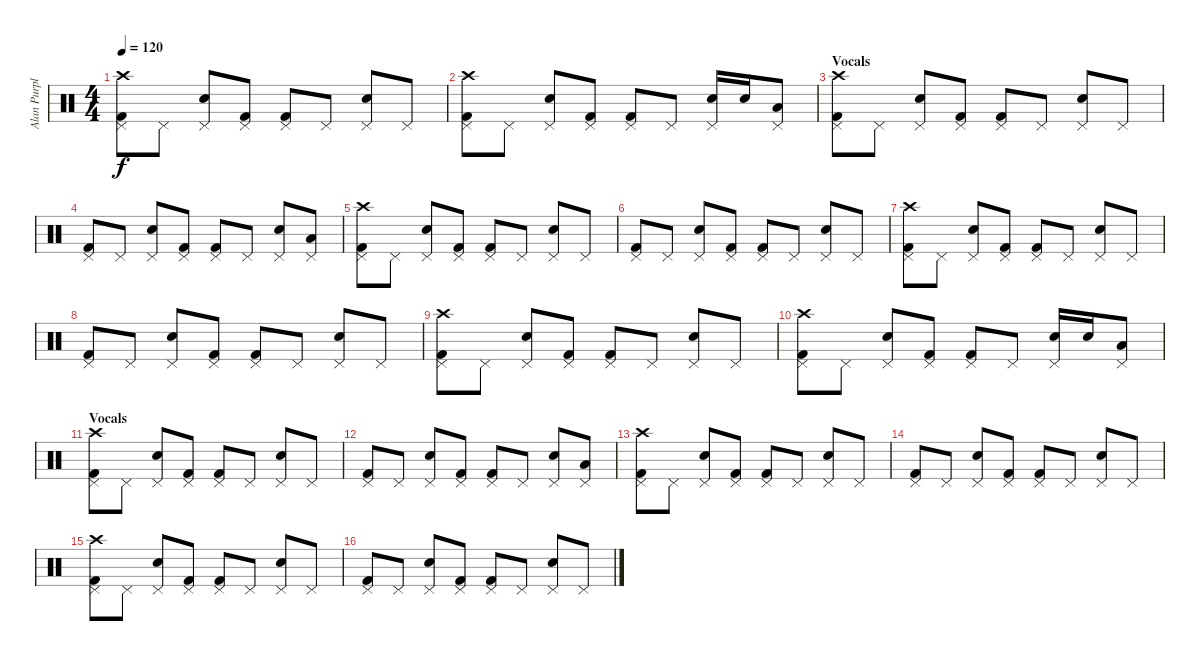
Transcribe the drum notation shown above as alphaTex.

\track ("Alan Purple" "Alan Purpl") {instrument percussion}
\staff {score}
\articulation defaults
\ts (4 4)
\tempo 120
\clef neutral
\ks c
("Crash high (hit)" "Pedal Hi-Hat (hit)" "Kick (hit) 2").8{dy f} "Pedal Hi-Hat (hit)".8 ("Pedal Hi-Hat (hit)" "Snare (hit) 2").8 ("Pedal Hi-Hat (hit)" "Kick (hit) 2").8 ("Pedal Hi-Hat (hit)" "Kick (hit) 2").8 "Pedal Hi-Hat (hit)".8 ("Pedal Hi-Hat (hit)" "Snare (hit) 2").8 "Pedal Hi-Hat (hit)".8 |
("Crash high (hit)" "Pedal Hi-Hat (hit)" "Kick (hit) 2").8 "Pedal Hi-Hat (hit)".8 ("Pedal Hi-Hat (hit)" "Snare (hit) 2").8 ("Pedal Hi-Hat (hit)" "Kick (hit) 2").8 ("Pedal Hi-Hat (hit)" "Kick (hit) 2").8 "Pedal Hi-Hat (hit)".8 ("Pedal Hi-Hat (hit)" "Snare (hit) 2").16 "Snare (hit) 2".16 ("Pedal Hi-Hat (hit)" "Low Tom (hit)").8 |
\section ("" "Vocals")
("Crash high (hit)" "Pedal Hi-Hat (hit)" "Kick (hit) 2").8 "Pedal Hi-Hat (hit)".8 ("Pedal Hi-Hat (hit)" "Snare (hit) 2").8 ("Pedal Hi-Hat (hit)" "Kick (hit) 2").8 ("Pedal Hi-Hat (hit)" "Kick (hit) 2").8 "Pedal Hi-Hat (hit)".8 ("Pedal Hi-Hat (hit)" "Snare (hit) 2").8 "Pedal Hi-Hat (hit)".8 |
("Pedal Hi-Hat (hit)" "Kick (hit) 2").8 "Pedal Hi-Hat (hit)".8 ("Pedal Hi-Hat (hit)" "Snare (hit) 2").8 ("Pedal Hi-Hat (hit)" "Kick (hit) 2").8 ("Pedal Hi-Hat (hit)" "Kick (hit) 2").8 "Pedal Hi-Hat (hit)".8 ("Pedal Hi-Hat (hit)" "Snare (hit) 2").8 ("Pedal Hi-Hat (hit)" "Low Tom (hit)").8 |
("Crash high (hit)" "Pedal Hi-Hat (hit)" "Kick (hit) 2").8 "Pedal Hi-Hat (hit)".8 ("Pedal Hi-Hat (hit)" "Snare (hit) 2").8 ("Pedal Hi-Hat (hit)" "Kick (hit) 2").8 ("Pedal Hi-Hat (hit)" "Kick (hit) 2").8 "Pedal Hi-Hat (hit)".8 ("Pedal Hi-Hat (hit)" "Snare (hit) 2").8 "Pedal Hi-Hat (hit)".8 |
("Pedal Hi-Hat (hit)" "Kick (hit) 2").8 "Pedal Hi-Hat (hit)".8 ("Pedal Hi-Hat (hit)" "Snare (hit) 2").8 ("Pedal Hi-Hat (hit)" "Kick (hit) 2").8 ("Pedal Hi-Hat (hit)" "Kick (hit) 2").8 "Pedal Hi-Hat (hit)".8 ("Pedal Hi-Hat (hit)" "Snare (hit) 2").8 "Pedal Hi-Hat (hit)".8 |
("Crash high (hit)" "Pedal Hi-Hat (hit)" "Kick (hit) 2").8 "Pedal Hi-Hat (hit)".8 ("Pedal Hi-Hat (hit)" "Snare (hit) 2").8 ("Pedal Hi-Hat (hit)" "Kick (hit) 2").8 ("Pedal Hi-Hat (hit)" "Kick (hit) 2").8 "Pedal Hi-Hat (hit)".8 ("Pedal Hi-Hat (hit)" "Snare (hit) 2").8 "Pedal Hi-Hat (hit)".8 |
("Pedal Hi-Hat (hit)" "Kick (hit) 2").8 "Pedal Hi-Hat (hit)".8 ("Pedal Hi-Hat (hit)" "Snare (hit) 2").8 ("Pedal Hi-Hat (hit)" "Kick (hit) 2").8 ("Pedal Hi-Hat (hit)" "Kick (hit) 2").8 "Pedal Hi-Hat (hit)".8 ("Pedal Hi-Hat (hit)" "Snare (hit) 2").8 "Pedal Hi-Hat (hit)".8 |
("Crash high (hit)" "Pedal Hi-Hat (hit)" "Kick (hit) 2").8 "Pedal Hi-Hat (hit)".8 ("Pedal Hi-Hat (hit)" "Snare (hit) 2").8 ("Pedal Hi-Hat (hit)" "Kick (hit) 2").8 ("Pedal Hi-Hat (hit)" "Kick (hit) 2").8 "Pedal Hi-Hat (hit)".8 ("Pedal Hi-Hat (hit)" "Snare (hit) 2").8 "Pedal Hi-Hat (hit)".8 |
("Crash high (hit)" "Pedal Hi-Hat (hit)" "Kick (hit) 2").8 "Pedal Hi-Hat (hit)".8 ("Pedal Hi-Hat (hit)" "Snare (hit) 2").8 ("Pedal Hi-Hat (hit)" "Kick (hit) 2").8 ("Pedal Hi-Hat (hit)" "Kick (hit) 2").8 "Pedal Hi-Hat (hit)".8 ("Pedal Hi-Hat (hit)" "Snare (hit) 2").16 "Snare (hit) 2".16 ("Pedal Hi-Hat (hit)" "Low Tom (hit)").8 |
\section ("" "Vocals")
("Crash high (hit)" "Pedal Hi-Hat (hit)" "Kick (hit) 2").8 "Pedal Hi-Hat (hit)".8 ("Pedal Hi-Hat (hit)" "Snare (hit) 2").8 ("Pedal Hi-Hat (hit)" "Kick (hit) 2").8 ("Pedal Hi-Hat (hit)" "Kick (hit) 2").8 "Pedal Hi-Hat (hit)".8 ("Pedal Hi-Hat (hit)" "Snare (hit) 2").8 "Pedal Hi-Hat (hit)".8 |
("Pedal Hi-Hat (hit)" "Kick (hit) 2").8 "Pedal Hi-Hat (hit)".8 ("Pedal Hi-Hat (hit)" "Snare (hit) 2").8 ("Pedal Hi-Hat (hit)" "Kick (hit) 2").8 ("Pedal Hi-Hat (hit)" "Kick (hit) 2").8 "Pedal Hi-Hat (hit)".8 ("Pedal Hi-Hat (hit)" "Snare (hit) 2").8 ("Pedal Hi-Hat (hit)" "Low Tom (hit)").8 |
("Crash high (hit)" "Pedal Hi-Hat (hit)" "Kick (hit) 2").8 "Pedal Hi-Hat (hit)".8 ("Pedal Hi-Hat (hit)" "Snare (hit) 2").8 ("Pedal Hi-Hat (hit)" "Kick (hit) 2").8 ("Pedal Hi-Hat (hit)" "Kick (hit) 2").8 "Pedal Hi-Hat (hit)".8 ("Pedal Hi-Hat (hit)" "Snare (hit) 2").8 "Pedal Hi-Hat (hit)".8 |
("Pedal Hi-Hat (hit)" "Kick (hit) 2").8 "Pedal Hi-Hat (hit)".8 ("Pedal Hi-Hat (hit)" "Snare (hit) 2").8 ("Pedal Hi-Hat (hit)" "Kick (hit) 2").8 ("Pedal Hi-Hat (hit)" "Kick (hit) 2").8 "Pedal Hi-Hat (hit)".8 ("Pedal Hi-Hat (hit)" "Snare (hit) 2").8 "Pedal Hi-Hat (hit)".8 |
("Crash high (hit)" "Pedal Hi-Hat (hit)" "Kick (hit) 2").8 "Pedal Hi-Hat (hit)".8 ("Pedal Hi-Hat (hit)" "Snare (hit) 2").8 ("Pedal Hi-Hat (hit)" "Kick (hit) 2").8 ("Pedal Hi-Hat (hit)" "Kick (hit) 2").8 "Pedal Hi-Hat (hit)".8 ("Pedal Hi-Hat (hit)" "Snare (hit) 2").8 "Pedal Hi-Hat (hit)".8 |
("Pedal Hi-Hat (hit)" "Kick (hit) 2").8 "Pedal Hi-Hat (hit)".8 ("Pedal Hi-Hat (hit)" "Snare (hit) 2").8 ("Pedal Hi-Hat (hit)" "Kick (hit) 2").8 ("Pedal Hi-Hat (hit)" "Kick (hit) 2").8 "Pedal Hi-Hat (hit)".8 ("Pedal Hi-Hat (hit)" "Snare (hit) 2").8 "Pedal Hi-Hat (hit)".8
